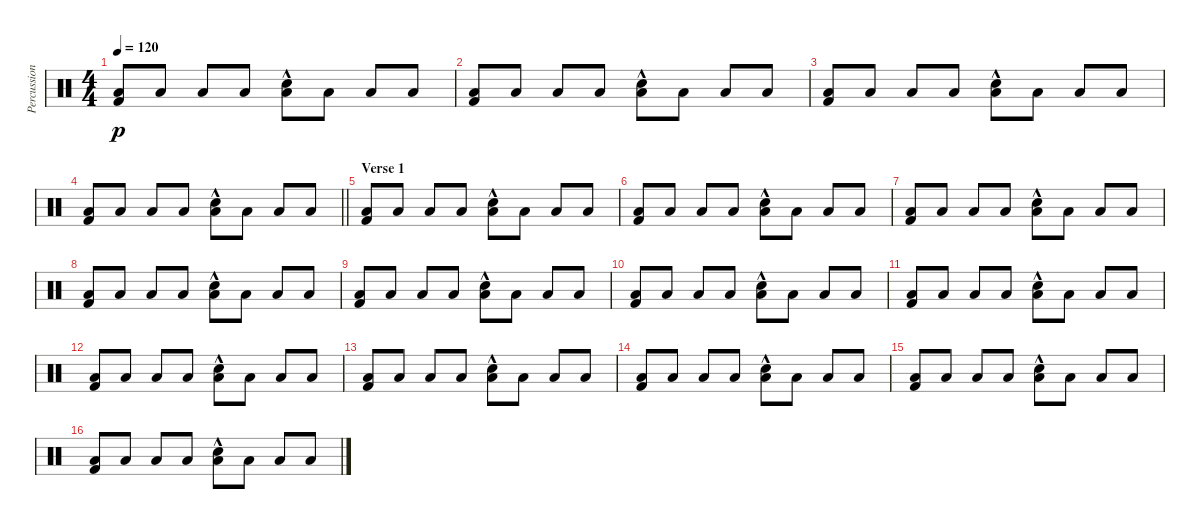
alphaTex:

\track ("Percussion" "Percussion") {instrument percussion}
\staff {score}
\articulation defaults
\ts (4 4)
\tempo 120
\clef neutral
\ks c
("Kick (hit) 2" "Low Floor Tom (hit)").8{dy p} "Low Floor Tom (hit)".8 "Low Floor Tom (hit)".8 "Low Floor Tom (hit)".8 ("Snare (hit) 2"{hac} "Low Floor Tom (hit)").8 "Low Floor Tom (hit)".8 "Low Floor Tom (hit)".8 "Low Floor Tom (hit)".8 |
("Kick (hit) 2" "Low Floor Tom (hit)").8 "Low Floor Tom (hit)".8 "Low Floor Tom (hit)".8 "Low Floor Tom (hit)".8 ("Snare (hit) 2"{hac} "Low Floor Tom (hit)").8 "Low Floor Tom (hit)".8 "Low Floor Tom (hit)".8 "Low Floor Tom (hit)".8 |
("Kick (hit) 2" "Low Floor Tom (hit)").8 "Low Floor Tom (hit)".8 "Low Floor Tom (hit)".8 "Low Floor Tom (hit)".8 ("Snare (hit) 2"{hac} "Low Floor Tom (hit)").8 "Low Floor Tom (hit)".8 "Low Floor Tom (hit)".8 "Low Floor Tom (hit)".8 |
\barLineRight lightlight
("Kick (hit) 2" "Low Floor Tom (hit)").8 "Low Floor Tom (hit)".8 "Low Floor Tom (hit)".8 "Low Floor Tom (hit)".8 ("Snare (hit) 2"{hac} "Low Floor Tom (hit)").8 "Low Floor Tom (hit)".8 "Low Floor Tom (hit)".8 "Low Floor Tom (hit)".8 |
\section ("" "Verse 1")
("Kick (hit) 2" "Low Floor Tom (hit)").8 "Low Floor Tom (hit)".8 "Low Floor Tom (hit)".8 "Low Floor Tom (hit)".8 ("Snare (hit) 2"{hac} "Low Floor Tom (hit)").8 "Low Floor Tom (hit)".8 "Low Floor Tom (hit)".8 "Low Floor Tom (hit)".8 |
("Kick (hit) 2" "Low Floor Tom (hit)").8 "Low Floor Tom (hit)".8 "Low Floor Tom (hit)".8 "Low Floor Tom (hit)".8 ("Snare (hit) 2"{hac} "Low Floor Tom (hit)").8 "Low Floor Tom (hit)".8 "Low Floor Tom (hit)".8 "Low Floor Tom (hit)".8 |
("Kick (hit) 2" "Low Floor Tom (hit)").8 "Low Floor Tom (hit)".8 "Low Floor Tom (hit)".8 "Low Floor Tom (hit)".8 ("Snare (hit) 2"{hac} "Low Floor Tom (hit)").8 "Low Floor Tom (hit)".8 "Low Floor Tom (hit)".8 "Low Floor Tom (hit)".8 |
("Kick (hit) 2" "Low Floor Tom (hit)").8 "Low Floor Tom (hit)".8 "Low Floor Tom (hit)".8 "Low Floor Tom (hit)".8 ("Snare (hit) 2"{hac} "Low Floor Tom (hit)").8 "Low Floor Tom (hit)".8 "Low Floor Tom (hit)".8 "Low Floor Tom (hit)".8 |
("Kick (hit) 2" "Low Floor Tom (hit)").8 "Low Floor Tom (hit)".8 "Low Floor Tom (hit)".8 "Low Floor Tom (hit)".8 ("Snare (hit) 2"{hac} "Low Floor Tom (hit)").8 "Low Floor Tom (hit)".8 "Low Floor Tom (hit)".8 "Low Floor Tom (hit)".8 |
("Kick (hit) 2" "Low Floor Tom (hit)").8 "Low Floor Tom (hit)".8 "Low Floor Tom (hit)".8 "Low Floor Tom (hit)".8 ("Snare (hit) 2"{hac} "Low Floor Tom (hit)").8 "Low Floor Tom (hit)".8 "Low Floor Tom (hit)".8 "Low Floor Tom (hit)".8 |
("Kick (hit) 2" "Low Floor Tom (hit)").8 "Low Floor Tom (hit)".8 "Low Floor Tom (hit)".8 "Low Floor Tom (hit)".8 ("Snare (hit) 2"{hac} "Low Floor Tom (hit)").8 "Low Floor Tom (hit)".8 "Low Floor Tom (hit)".8 "Low Floor Tom (hit)".8 |
("Kick (hit) 2" "Low Floor Tom (hit)").8 "Low Floor Tom (hit)".8 "Low Floor Tom (hit)".8 "Low Floor Tom (hit)".8 ("Snare (hit) 2"{hac} "Low Floor Tom (hit)").8 "Low Floor Tom (hit)".8 "Low Floor Tom (hit)".8 "Low Floor Tom (hit)".8 |
("Kick (hit) 2" "Low Floor Tom (hit)").8 "Low Floor Tom (hit)".8 "Low Floor Tom (hit)".8 "Low Floor Tom (hit)".8 ("Snare (hit) 2"{hac} "Low Floor Tom (hit)").8 "Low Floor Tom (hit)".8 "Low Floor Tom (hit)".8 "Low Floor Tom (hit)".8 |
("Kick (hit) 2" "Low Floor Tom (hit)").8 "Low Floor Tom (hit)".8 "Low Floor Tom (hit)".8 "Low Floor Tom (hit)".8 ("Snare (hit) 2"{hac} "Low Floor Tom (hit)").8 "Low Floor Tom (hit)".8 "Low Floor Tom (hit)".8 "Low Floor Tom (hit)".8 |
("Kick (hit) 2" "Low Floor Tom (hit)").8 "Low Floor Tom (hit)".8 "Low Floor Tom (hit)".8 "Low Floor Tom (hit)".8 ("Snare (hit) 2"{hac} "Low Floor Tom (hit)").8 "Low Floor Tom (hit)".8 "Low Floor Tom (hit)".8 "Low Floor Tom (hit)".8 |
("Kick (hit) 2" "Low Floor Tom (hit)").8 "Low Floor Tom (hit)".8 "Low Floor Tom (hit)".8 "Low Floor Tom (hit)".8 ("Snare (hit) 2"{hac} "Low Floor Tom (hit)").8 "Low Floor Tom (hit)".8 "Low Floor Tom (hit)".8 "Low Floor Tom (hit)".8
